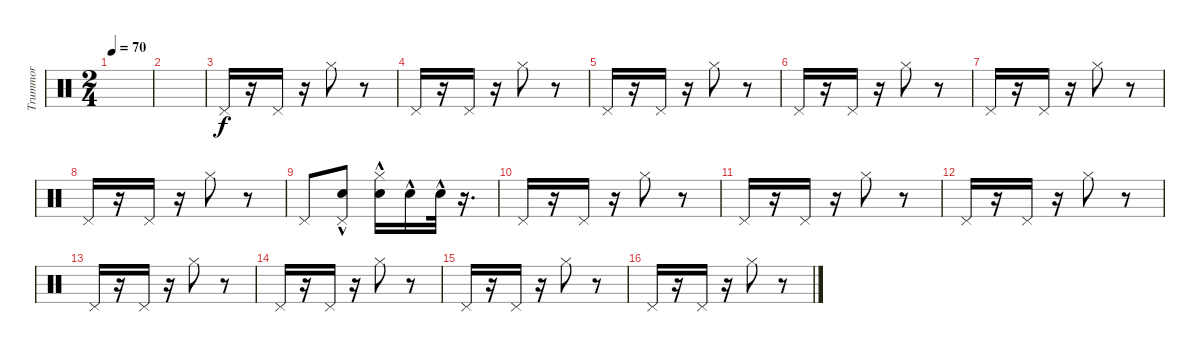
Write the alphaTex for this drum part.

\track ("Trummor" "Trummor") {instrument percussion}
\staff {score}
\articulation defaults
\ts (2 4)
\tempo 70
\clef neutral
\ks c
|
|
"Pedal Hi-Hat (hit)".16 r.16 "Pedal Hi-Hat (hit)".16 r.16 "Hi-Hat (closed)".8 r.8 |
"Pedal Hi-Hat (hit)".16 r.16 "Pedal Hi-Hat (hit)".16 r.16 "Hi-Hat (closed)".8 r.8 |
"Pedal Hi-Hat (hit)".16 r.16 "Pedal Hi-Hat (hit)".16 r.16 "Hi-Hat (closed)".8 r.8 |
"Pedal Hi-Hat (hit)".16 r.16 "Pedal Hi-Hat (hit)".16 r.16 "Hi-Hat (closed)".8 r.8 |
"Pedal Hi-Hat (hit)".16 r.16 "Pedal Hi-Hat (hit)".16 r.16 "Hi-Hat (closed)".8 r.8 |
"Pedal Hi-Hat (hit)".16 r.16 "Pedal Hi-Hat (hit)".16 r.16 "Hi-Hat (closed)".8 r.8 |
"Pedal Hi-Hat (hit)".8 ("Pedal Hi-Hat (hit)" "Snare (hit) 2"{hac}).8 ("Hi-Hat (closed)" "Snare (hit) 2"{hac}).16 "Snare (hit) 2"{hac}.16 "Snare (hit) 2"{hac}.32 r.16{d} |
"Pedal Hi-Hat (hit)".16 r.16 "Pedal Hi-Hat (hit)".16 r.16 "Hi-Hat (closed)".8 r.8 |
"Pedal Hi-Hat (hit)".16 r.16 "Pedal Hi-Hat (hit)".16 r.16 "Hi-Hat (closed)".8 r.8 |
"Pedal Hi-Hat (hit)".16 r.16 "Pedal Hi-Hat (hit)".16 r.16 "Hi-Hat (closed)".8 r.8 |
"Pedal Hi-Hat (hit)".16 r.16 "Pedal Hi-Hat (hit)".16 r.16 "Hi-Hat (closed)".8 r.8 |
"Pedal Hi-Hat (hit)".16 r.16 "Pedal Hi-Hat (hit)".16 r.16 "Hi-Hat (closed)".8 r.8 |
"Pedal Hi-Hat (hit)".16 r.16 "Pedal Hi-Hat (hit)".16 r.16 "Hi-Hat (closed)".8 r.8 |
"Pedal Hi-Hat (hit)".16 r.16 "Pedal Hi-Hat (hit)".16 r.16 "Hi-Hat (closed)".8 r.8
